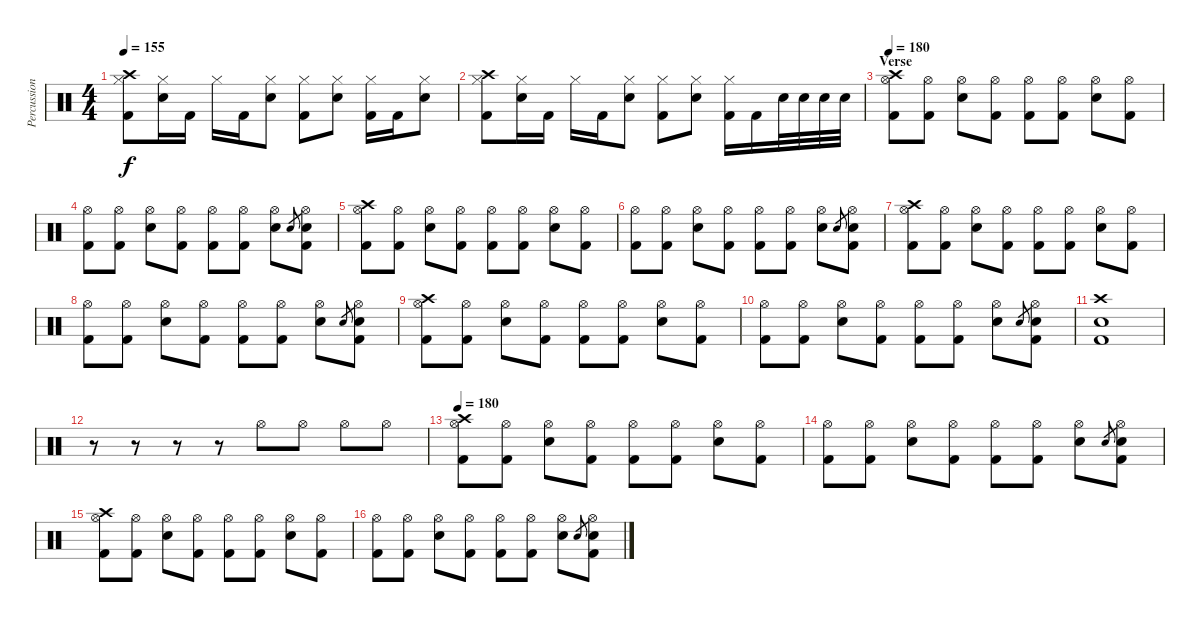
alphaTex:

\track ("Percussion" "Percussion") {instrument percussion}
\staff {score}
\articulation defaults
\ts (4 4)
\tempo 155
\clef neutral
\ks c
("Crash high (hit)" "Hi-Hat (closed)" "Kick (hit) 2").8{dy f} ("Hi-Hat (closed)" "Electric Snare (hit)").16 "Kick (hit) 2".16 "Hi-Hat (closed)".16 "Kick (hit) 2".16 ("Hi-Hat (closed)" "Electric Snare (hit)").8 ("Hi-Hat (closed)" "Kick (hit) 2").8 ("Hi-Hat (closed)" "Electric Snare (hit)").8 ("Hi-Hat (closed)" "Kick (hit) 2").16 "Kick (hit) 2".16 ("Hi-Hat (closed)" "Electric Snare (hit)").8 |
("Crash high (hit)" "Hi-Hat (closed)" "Kick (hit) 2").8 ("Hi-Hat (closed)" "Electric Snare (hit)").16 "Kick (hit) 2".16 "Hi-Hat (closed)".16 "Kick (hit) 2".16 ("Hi-Hat (closed)" "Electric Snare (hit)").8 ("Hi-Hat (closed)" "Kick (hit) 2").8 ("Hi-Hat (closed)" "Electric Snare (hit)").8 ("Hi-Hat (closed)" "Kick (hit) 2").16 "Kick (hit) 2".16 "Electric Snare (hit)".32 "Electric Snare (hit)".32 "Electric Snare (hit)".32 "Electric Snare (hit)".32 |
\section ("" "Verse")
\tempo 180
("Crash high (hit)" "Hi-Hat (open)" "Kick (hit) 2").8{volume 13} ("Hi-Hat (open)" "Kick (hit) 2").8 ("Hi-Hat (open)" "Electric Snare (hit)").8 ("Hi-Hat (open)" "Kick (hit) 2").8 ("Hi-Hat (open)" "Kick (hit) 2").8 ("Hi-Hat (open)" "Kick (hit) 2").8 ("Hi-Hat (open)" "Electric Snare (hit)").8 ("Hi-Hat (open)" "Kick (hit) 2").8 |
("Hi-Hat (open)" "Kick (hit) 2").8 ("Hi-Hat (open)" "Kick (hit) 2").8 ("Hi-Hat (open)" "Electric Snare (hit)").8 ("Hi-Hat (open)" "Kick (hit) 2").8 ("Hi-Hat (open)" "Kick (hit) 2").8 ("Hi-Hat (open)" "Kick (hit) 2").8 ("Hi-Hat (open)" "Electric Snare (hit)").8 "Electric Snare (hit)".8{gr} ("Hi-Hat (open)" "Electric Snare (hit)" "Kick (hit) 2").8 |
("Crash high (hit)" "Hi-Hat (open)" "Kick (hit) 2").8 ("Hi-Hat (open)" "Kick (hit) 2").8 ("Hi-Hat (open)" "Electric Snare (hit)").8 ("Hi-Hat (open)" "Kick (hit) 2").8 ("Hi-Hat (open)" "Kick (hit) 2").8 ("Hi-Hat (open)" "Kick (hit) 2").8 ("Hi-Hat (open)" "Electric Snare (hit)").8 ("Hi-Hat (open)" "Kick (hit) 2").8 |
("Hi-Hat (open)" "Kick (hit) 2").8 ("Hi-Hat (open)" "Kick (hit) 2").8 ("Hi-Hat (open)" "Electric Snare (hit)").8 ("Hi-Hat (open)" "Kick (hit) 2").8 ("Hi-Hat (open)" "Kick (hit) 2").8 ("Hi-Hat (open)" "Kick (hit) 2").8 ("Hi-Hat (open)" "Electric Snare (hit)").8 "Electric Snare (hit)".8{gr} ("Hi-Hat (open)" "Electric Snare (hit)" "Kick (hit) 2").8 |
("Crash high (hit)" "Hi-Hat (open)" "Kick (hit) 2").8 ("Hi-Hat (open)" "Kick (hit) 2").8 ("Hi-Hat (open)" "Electric Snare (hit)").8 ("Hi-Hat (open)" "Kick (hit) 2").8 ("Hi-Hat (open)" "Kick (hit) 2").8 ("Hi-Hat (open)" "Kick (hit) 2").8 ("Hi-Hat (open)" "Electric Snare (hit)").8 ("Hi-Hat (open)" "Kick (hit) 2").8 |
("Hi-Hat (open)" "Kick (hit) 2").8 ("Hi-Hat (open)" "Kick (hit) 2").8 ("Hi-Hat (open)" "Electric Snare (hit)").8 ("Hi-Hat (open)" "Kick (hit) 2").8 ("Hi-Hat (open)" "Kick (hit) 2").8 ("Hi-Hat (open)" "Kick (hit) 2").8 ("Hi-Hat (open)" "Electric Snare (hit)").8 "Electric Snare (hit)".8{gr} ("Hi-Hat (open)" "Electric Snare (hit)" "Kick (hit) 2").8 |
("Crash high (hit)" "Hi-Hat (open)" "Kick (hit) 2").8 ("Hi-Hat (open)" "Kick (hit) 2").8 ("Hi-Hat (open)" "Electric Snare (hit)").8 ("Hi-Hat (open)" "Kick (hit) 2").8 ("Hi-Hat (open)" "Kick (hit) 2").8 ("Hi-Hat (open)" "Kick (hit) 2").8 ("Hi-Hat (open)" "Electric Snare (hit)").8 ("Hi-Hat (open)" "Kick (hit) 2").8 |
("Hi-Hat (open)" "Kick (hit) 2").8 ("Hi-Hat (open)" "Kick (hit) 2").8 ("Hi-Hat (open)" "Electric Snare (hit)").8 ("Hi-Hat (open)" "Kick (hit) 2").8 ("Hi-Hat (open)" "Kick (hit) 2").8 ("Hi-Hat (open)" "Kick (hit) 2").8 ("Hi-Hat (open)" "Electric Snare (hit)").8 "Electric Snare (hit)".8{gr} ("Hi-Hat (open)" "Electric Snare (hit)" "Kick (hit) 2").8 |
("Crash high (hit)" "Electric Snare (hit)" "Kick (hit) 2").1 |
r.8 r.8 r.8 r.8 "Hi-Hat (open)".8 "Hi-Hat (open)".8 "Hi-Hat (open)".8 "Hi-Hat (open)".8 |
\tempo 180
("Crash high (hit)" "Hi-Hat (open)" "Kick (hit) 2").8{volume 13} ("Hi-Hat (open)" "Kick (hit) 2").8 ("Hi-Hat (open)" "Electric Snare (hit)").8 ("Hi-Hat (open)" "Kick (hit) 2").8 ("Hi-Hat (open)" "Kick (hit) 2").8 ("Hi-Hat (open)" "Kick (hit) 2").8 ("Hi-Hat (open)" "Electric Snare (hit)").8 ("Hi-Hat (open)" "Kick (hit) 2").8 |
("Hi-Hat (open)" "Kick (hit) 2").8 ("Hi-Hat (open)" "Kick (hit) 2").8 ("Hi-Hat (open)" "Electric Snare (hit)").8 ("Hi-Hat (open)" "Kick (hit) 2").8 ("Hi-Hat (open)" "Kick (hit) 2").8 ("Hi-Hat (open)" "Kick (hit) 2").8 ("Hi-Hat (open)" "Electric Snare (hit)").8 "Electric Snare (hit)".8{gr} ("Hi-Hat (open)" "Electric Snare (hit)" "Kick (hit) 2").8 |
("Crash high (hit)" "Hi-Hat (open)" "Kick (hit) 2").8 ("Hi-Hat (open)" "Kick (hit) 2").8 ("Hi-Hat (open)" "Electric Snare (hit)").8 ("Hi-Hat (open)" "Kick (hit) 2").8 ("Hi-Hat (open)" "Kick (hit) 2").8 ("Hi-Hat (open)" "Kick (hit) 2").8 ("Hi-Hat (open)" "Electric Snare (hit)").8 ("Hi-Hat (open)" "Kick (hit) 2").8 |
("Hi-Hat (open)" "Kick (hit) 2").8 ("Hi-Hat (open)" "Kick (hit) 2").8 ("Hi-Hat (open)" "Electric Snare (hit)").8 ("Hi-Hat (open)" "Kick (hit) 2").8 ("Hi-Hat (open)" "Kick (hit) 2").8 ("Hi-Hat (open)" "Kick (hit) 2").8 ("Hi-Hat (open)" "Electric Snare (hit)").8 "Electric Snare (hit)".8{gr} ("Hi-Hat (open)" "Electric Snare (hit)" "Kick (hit) 2").8
